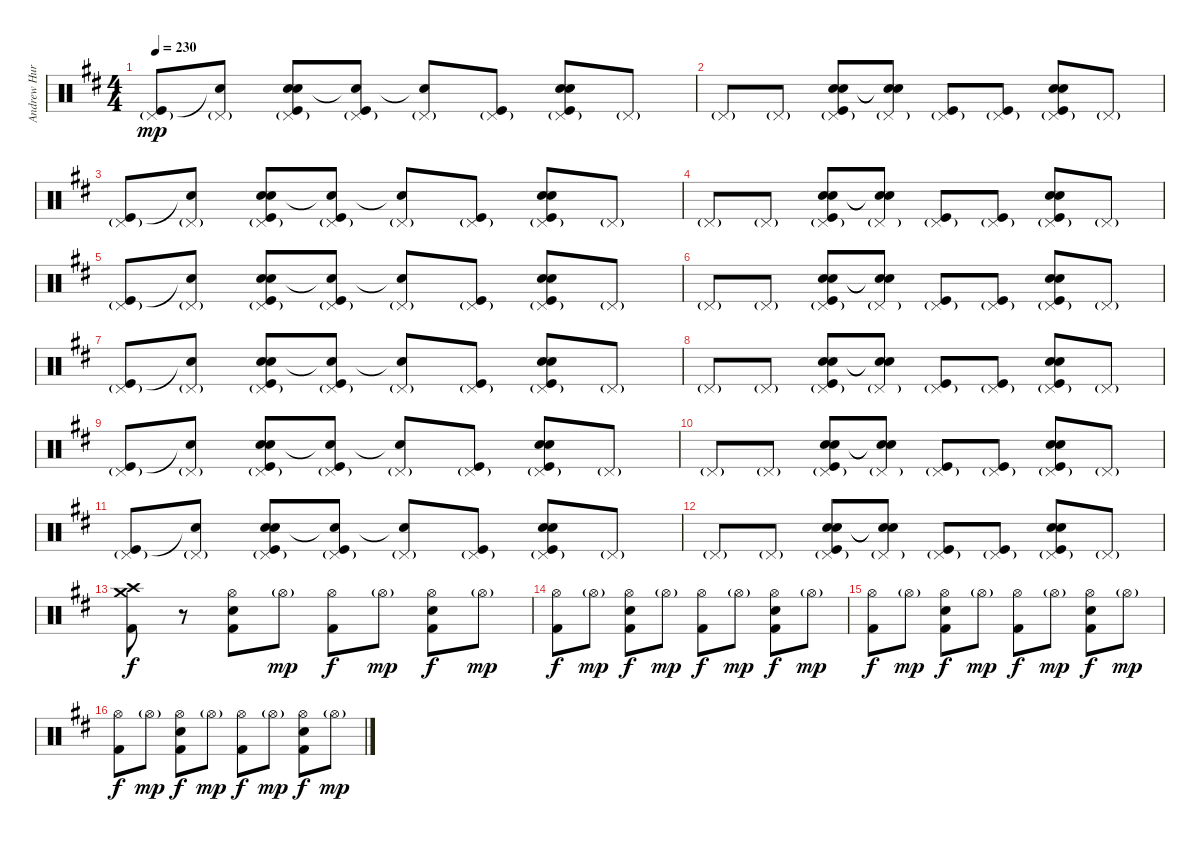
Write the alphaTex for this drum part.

\track ("Andrew Hurley" "Andrew Hur") {instrument percussion}
\staff {score}
\articulation defaults
\ts (4 4)
\tempo 230
\clef neutral
\ks d
("Pedal Hi-Hat (hit)"{g} "Kick (hit)").8{dy mp} ("Pedal Hi-Hat (hit)"{g} "Snare (hit)"{t}).8 ("Pedal Hi-Hat (hit)"{g} "Snare (hit) 2" "Electric Snare (hit)" "Kick (hit)").8 ("Pedal Hi-Hat (hit)"{g} "Snare (hit)"{t} "Kick (hit)").8 ("Pedal Hi-Hat (hit)"{g} "Snare (hit)"{t}).8 ("Pedal Hi-Hat (hit)"{g} "Kick (hit)").8 ("Pedal Hi-Hat (hit)"{g} "Snare (hit) 2" "Electric Snare (hit)" "Kick (hit)").8 "Pedal Hi-Hat (hit)"{g}.8 |
"Pedal Hi-Hat (hit)"{g}.8 "Pedal Hi-Hat (hit)"{g}.8 ("Pedal Hi-Hat (hit)"{g} "Snare (hit) 2" "Electric Snare (hit)" "Kick (hit)").8 ("Pedal Hi-Hat (hit)"{g} "Snare (hit)"{t} "Snare (hit)"{t}).8 ("Pedal Hi-Hat (hit)"{g} "Kick (hit)").8 ("Pedal Hi-Hat (hit)"{g} "Kick (hit)").8 ("Pedal Hi-Hat (hit)"{g} "Snare (hit) 2" "Electric Snare (hit)" "Kick (hit)").8 "Pedal Hi-Hat (hit)"{g}.8 |
("Pedal Hi-Hat (hit)"{g} "Kick (hit)").8 ("Pedal Hi-Hat (hit)"{g} "Snare (hit)"{t}).8 ("Pedal Hi-Hat (hit)"{g} "Snare (hit) 2" "Electric Snare (hit)" "Kick (hit)").8 ("Pedal Hi-Hat (hit)"{g} "Snare (hit)"{t} "Kick (hit)").8 ("Pedal Hi-Hat (hit)"{g} "Snare (hit)"{t}).8 ("Pedal Hi-Hat (hit)"{g} "Kick (hit)").8 ("Pedal Hi-Hat (hit)"{g} "Snare (hit) 2" "Electric Snare (hit)" "Kick (hit)").8 "Pedal Hi-Hat (hit)"{g}.8 |
"Pedal Hi-Hat (hit)"{g}.8 "Pedal Hi-Hat (hit)"{g}.8 ("Pedal Hi-Hat (hit)"{g} "Snare (hit) 2" "Electric Snare (hit)" "Kick (hit)").8 ("Pedal Hi-Hat (hit)"{g} "Snare (hit)"{t} "Snare (hit)"{t}).8 ("Pedal Hi-Hat (hit)"{g} "Kick (hit)").8 ("Pedal Hi-Hat (hit)"{g} "Kick (hit)").8 ("Pedal Hi-Hat (hit)"{g} "Snare (hit) 2" "Electric Snare (hit)" "Kick (hit)").8 "Pedal Hi-Hat (hit)"{g}.8 |
("Pedal Hi-Hat (hit)"{g} "Kick (hit)").8 ("Pedal Hi-Hat (hit)"{g} "Snare (hit)"{t}).8 ("Pedal Hi-Hat (hit)"{g} "Snare (hit) 2" "Electric Snare (hit)" "Kick (hit)").8 ("Pedal Hi-Hat (hit)"{g} "Snare (hit)"{t} "Kick (hit)").8 ("Pedal Hi-Hat (hit)"{g} "Snare (hit)"{t}).8 ("Pedal Hi-Hat (hit)"{g} "Kick (hit)").8 ("Pedal Hi-Hat (hit)"{g} "Snare (hit) 2" "Electric Snare (hit)" "Kick (hit)").8 "Pedal Hi-Hat (hit)"{g}.8 |
"Pedal Hi-Hat (hit)"{g}.8 "Pedal Hi-Hat (hit)"{g}.8 ("Pedal Hi-Hat (hit)"{g} "Snare (hit) 2" "Electric Snare (hit)" "Kick (hit)").8 ("Pedal Hi-Hat (hit)"{g} "Snare (hit)"{t} "Snare (hit)"{t}).8 ("Pedal Hi-Hat (hit)"{g} "Kick (hit)").8 ("Pedal Hi-Hat (hit)"{g} "Kick (hit)").8 ("Pedal Hi-Hat (hit)"{g} "Snare (hit) 2" "Electric Snare (hit)" "Kick (hit)").8 "Pedal Hi-Hat (hit)"{g}.8 |
("Pedal Hi-Hat (hit)"{g} "Kick (hit)").8 ("Pedal Hi-Hat (hit)"{g} "Snare (hit)"{t}).8 ("Pedal Hi-Hat (hit)"{g} "Snare (hit) 2" "Electric Snare (hit)" "Kick (hit)").8 ("Pedal Hi-Hat (hit)"{g} "Snare (hit)"{t} "Kick (hit)").8 ("Pedal Hi-Hat (hit)"{g} "Snare (hit)"{t}).8 ("Pedal Hi-Hat (hit)"{g} "Kick (hit)").8 ("Pedal Hi-Hat (hit)"{g} "Snare (hit) 2" "Electric Snare (hit)" "Kick (hit)").8 "Pedal Hi-Hat (hit)"{g}.8 |
"Pedal Hi-Hat (hit)"{g}.8 "Pedal Hi-Hat (hit)"{g}.8 ("Pedal Hi-Hat (hit)"{g} "Snare (hit) 2" "Electric Snare (hit)" "Kick (hit)").8 ("Pedal Hi-Hat (hit)"{g} "Snare (hit)"{t} "Snare (hit)"{t}).8 ("Pedal Hi-Hat (hit)"{g} "Kick (hit)").8 ("Pedal Hi-Hat (hit)"{g} "Kick (hit)").8 ("Pedal Hi-Hat (hit)"{g} "Snare (hit) 2" "Electric Snare (hit)" "Kick (hit)").8 "Pedal Hi-Hat (hit)"{g}.8 |
("Pedal Hi-Hat (hit)"{g} "Kick (hit)").8 ("Pedal Hi-Hat (hit)"{g} "Snare (hit)"{t}).8 ("Pedal Hi-Hat (hit)"{g} "Snare (hit) 2" "Electric Snare (hit)" "Kick (hit)").8 ("Pedal Hi-Hat (hit)"{g} "Snare (hit)"{t} "Kick (hit)").8 ("Pedal Hi-Hat (hit)"{g} "Snare (hit)"{t}).8 ("Pedal Hi-Hat (hit)"{g} "Kick (hit)").8 ("Pedal Hi-Hat (hit)"{g} "Snare (hit) 2" "Electric Snare (hit)" "Kick (hit)").8 "Pedal Hi-Hat (hit)"{g}.8 |
"Pedal Hi-Hat (hit)"{g}.8 "Pedal Hi-Hat (hit)"{g}.8 ("Pedal Hi-Hat (hit)"{g} "Snare (hit) 2" "Electric Snare (hit)" "Kick (hit)").8 ("Pedal Hi-Hat (hit)"{g} "Snare (hit)"{t} "Snare (hit)"{t}).8 ("Pedal Hi-Hat (hit)"{g} "Kick (hit)").8 ("Pedal Hi-Hat (hit)"{g} "Kick (hit)").8 ("Pedal Hi-Hat (hit)"{g} "Snare (hit) 2" "Electric Snare (hit)" "Kick (hit)").8 "Pedal Hi-Hat (hit)"{g}.8 |
("Pedal Hi-Hat (hit)"{g} "Kick (hit)").8 ("Pedal Hi-Hat (hit)"{g} "Snare (hit)"{t}).8 ("Pedal Hi-Hat (hit)"{g} "Snare (hit) 2" "Electric Snare (hit)" "Kick (hit)").8 ("Pedal Hi-Hat (hit)"{g} "Snare (hit)"{t} "Kick (hit)").8 ("Pedal Hi-Hat (hit)"{g} "Snare (hit)"{t}).8 ("Pedal Hi-Hat (hit)"{g} "Kick (hit)").8 ("Pedal Hi-Hat (hit)"{g} "Snare (hit) 2" "Electric Snare (hit)" "Kick (hit)").8 "Pedal Hi-Hat (hit)"{g}.8 |
"Pedal Hi-Hat (hit)"{g}.8 "Pedal Hi-Hat (hit)"{g}.8 ("Pedal Hi-Hat (hit)"{g} "Snare (hit) 2" "Electric Snare (hit)" "Kick (hit)").8 ("Pedal Hi-Hat (hit)"{g} "Snare (hit)"{t} "Snare (hit)"{t}).8 ("Pedal Hi-Hat (hit)"{g} "Kick (hit)").8 ("Pedal Hi-Hat (hit)"{g} "Kick (hit)").8 ("Pedal Hi-Hat (hit)"{g} "Snare (hit) 2" "Electric Snare (hit)" "Kick (hit)").8 "Pedal Hi-Hat (hit)"{g}.8 |
("Crash high (hit)" "Crash medium (hit)" "Kick (hit) 2").8{dy f} r.8 ("Hi-Hat (open)" "Electric Snare (hit)" "Kick (hit) 2").8 "Hi-Hat (open)"{g}.8{dy mp} ("Hi-Hat (open)" "Kick (hit) 2").8{dy f} "Hi-Hat (open)"{g}.8{dy mp} ("Hi-Hat (open)" "Electric Snare (hit)" "Kick (hit) 2").8{dy f} "Hi-Hat (open)"{g}.8{dy mp} |
("Hi-Hat (open)" "Kick (hit) 2").8{dy f} "Hi-Hat (open)"{g}.8{dy mp} ("Hi-Hat (open)" "Electric Snare (hit)" "Kick (hit) 2").8{dy f} "Hi-Hat (open)"{g}.8{dy mp} ("Hi-Hat (open)" "Kick (hit) 2").8{dy f} "Hi-Hat (open)"{g}.8{dy mp} ("Hi-Hat (open)" "Electric Snare (hit)" "Kick (hit) 2").8{dy f} "Hi-Hat (open)"{g}.8{dy mp} |
("Hi-Hat (open)" "Kick (hit) 2").8{dy f} "Hi-Hat (open)"{g}.8{dy mp} ("Hi-Hat (open)" "Electric Snare (hit)" "Kick (hit) 2").8{dy f} "Hi-Hat (open)"{g}.8{dy mp} ("Hi-Hat (open)" "Kick (hit) 2").8{dy f} "Hi-Hat (open)"{g}.8{dy mp} ("Hi-Hat (open)" "Electric Snare (hit)" "Kick (hit) 2").8{dy f} "Hi-Hat (open)"{g}.8{dy mp} |
("Hi-Hat (open)" "Kick (hit) 2").8{dy f} "Hi-Hat (open)"{g}.8{dy mp} ("Hi-Hat (open)" "Electric Snare (hit)" "Kick (hit) 2").8{dy f} "Hi-Hat (open)"{g}.8{dy mp} ("Hi-Hat (open)" "Kick (hit) 2").8{dy f} "Hi-Hat (open)"{g}.8{dy mp} ("Hi-Hat (open)" "Electric Snare (hit)" "Kick (hit) 2").8{dy f} "Hi-Hat (open)"{g}.8{dy mp}
